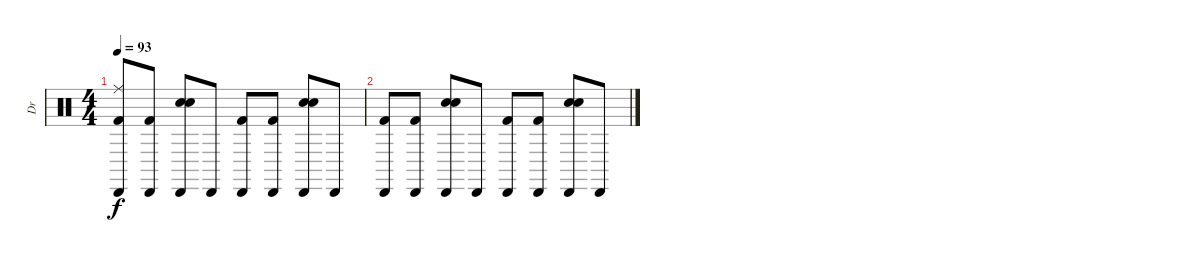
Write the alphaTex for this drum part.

\track ("Dr" "Dr") {instrument percussion}
\staff {score}
\articulation defaults
\ts (4 4)
\tempo 93
\clef neutral
\ks c
("Ride (middle)" "Cabasa (hit)" "Kick (hit) 2").8{dy f} ("Cabasa (hit)" "Kick (hit) 2").8 ("Cabasa (hit)" "Electric Snare (hit)" "Hand Clap (hit)").8 "Cabasa (hit)".8 ("Cabasa (hit)" "Kick (hit) 2").8 ("Cabasa (hit)" "Kick (hit) 2").8 ("Cabasa (hit)" "Electric Snare (hit)" "Hand Clap (hit)").8 "Cabasa (hit)".8 |
("Cabasa (hit)" "Kick (hit) 2").8 ("Cabasa (hit)" "Kick (hit) 2").8 ("Cabasa (hit)" "Electric Snare (hit)" "Hand Clap (hit)").8 "Cabasa (hit)".8 ("Cabasa (hit)" "Kick (hit) 2").8 ("Cabasa (hit)" "Kick (hit) 2").8 ("Cabasa (hit)" "Electric Snare (hit)" "Hand Clap (hit)").8 "Cabasa (hit)".8
